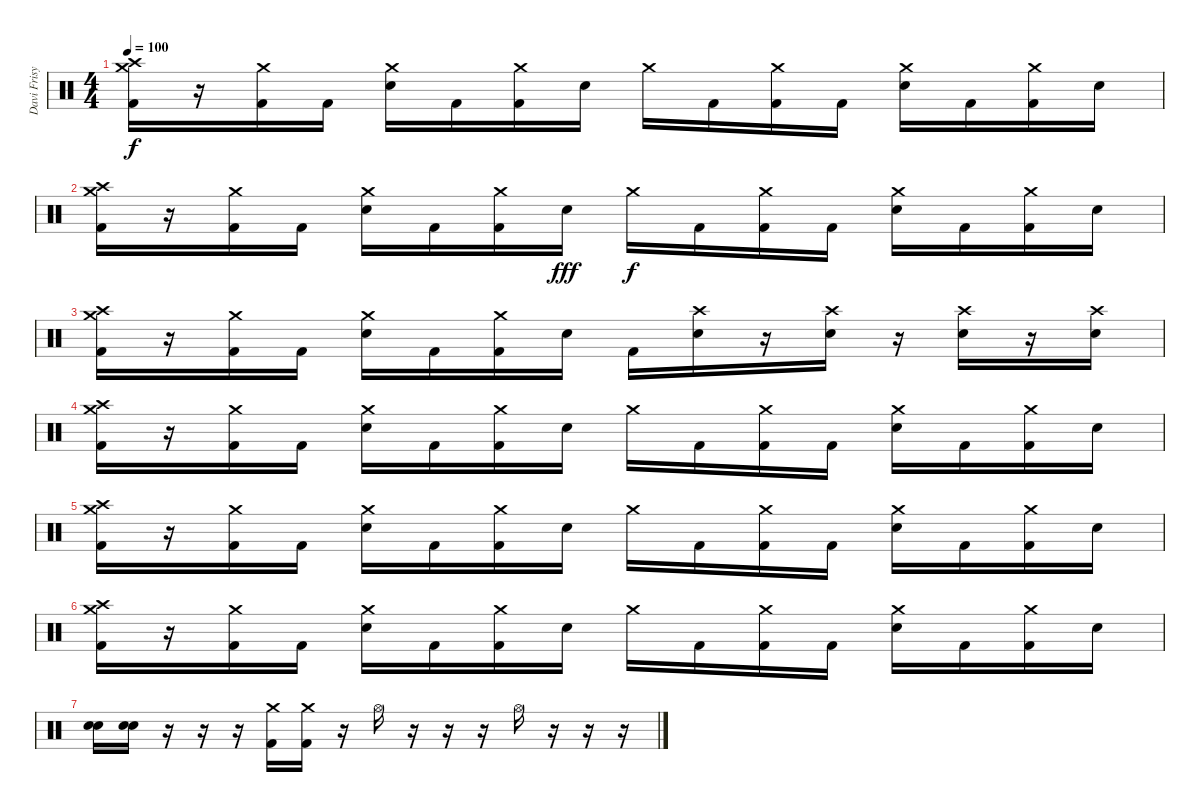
\track ("Davi Frisya" "Davi Frisy") {instrument percussion}
\staff {score}
\articulation defaults
\ts (4 4)
\tempo 100
\clef neutral
\ks c
("Crash medium (hit)" "Crash high (hit)" "Kick (hit) 2").16{dy f} r.16 ("Crash medium (hit)" "Kick (hit) 2").16 "Kick (hit) 2".16 ("Crash medium (hit)" "Electric Snare (hit)").16 "Kick (hit) 2".16 ("Crash medium (hit)" "Kick (hit) 2").16 "Electric Snare (hit)".16 "Crash medium (hit)".16 "Kick (hit) 2".16 ("Crash medium (hit)" "Kick (hit) 2").16 "Kick (hit) 2".16 ("Crash medium (hit)" "Electric Snare (hit)").16 "Kick (hit) 2".16 ("Crash medium (hit)" "Kick (hit) 2").16 "Electric Snare (hit)".16 |
("Crash medium (hit)" "Crash high (hit)" "Kick (hit) 2").16 r.16 ("Crash medium (hit)" "Kick (hit) 2").16 "Kick (hit) 2".16 ("Crash medium (hit)" "Electric Snare (hit)").16 "Kick (hit) 2".16 ("Crash medium (hit)" "Kick (hit) 2").16 "Electric Snare (hit)".16{dy fff} "Crash medium (hit)".16{dy f} "Kick (hit) 2".16 ("Crash medium (hit)" "Kick (hit) 2").16 "Kick (hit) 2".16 ("Crash medium (hit)" "Electric Snare (hit)").16 "Kick (hit) 2".16 ("Crash medium (hit)" "Kick (hit) 2").16 "Electric Snare (hit)".16 |
("Crash medium (hit)" "Crash high (hit)" "Kick (hit) 2").16 r.16 ("Crash medium (hit)" "Kick (hit) 2").16 "Kick (hit) 2".16 ("Crash medium (hit)" "Electric Snare (hit)").16 "Kick (hit) 2".16 ("Crash medium (hit)" "Kick (hit) 2").16 "Electric Snare (hit)".16 "Kick (hit) 2".16 ("Crash high (hit)" "Electric Snare (hit)").16 r.16 ("Crash high (hit)" "Electric Snare (hit)").16 r.16 ("Crash high (hit)" "Electric Snare (hit)").16 r.16 ("Crash high (hit)" "Electric Snare (hit)").16 |
("Crash medium (hit)" "Crash high (hit)" "Kick (hit) 2").16 r.16 ("Crash medium (hit)" "Kick (hit) 2").16 "Kick (hit) 2".16 ("Crash medium (hit)" "Electric Snare (hit)").16 "Kick (hit) 2".16 ("Crash medium (hit)" "Kick (hit) 2").16 "Electric Snare (hit)".16 "Crash medium (hit)".16 "Kick (hit) 2".16 ("Crash medium (hit)" "Kick (hit) 2").16 "Kick (hit) 2".16 ("Crash medium (hit)" "Electric Snare (hit)").16 "Kick (hit) 2".16 ("Crash medium (hit)" "Kick (hit) 2").16 "Electric Snare (hit)".16 |
("Crash medium (hit)" "Crash high (hit)" "Kick (hit) 2").16 r.16 ("Crash medium (hit)" "Kick (hit) 2").16 "Kick (hit) 2".16 ("Crash medium (hit)" "Electric Snare (hit)").16 "Kick (hit) 2".16 ("Crash medium (hit)" "Kick (hit) 2").16 "Electric Snare (hit)".16 "Crash medium (hit)".16 "Kick (hit) 2".16 ("Crash medium (hit)" "Kick (hit) 2").16 "Kick (hit) 2".16 ("Crash medium (hit)" "Electric Snare (hit)").16 "Kick (hit) 2".16 ("Crash medium (hit)" "Kick (hit) 2").16 "Electric Snare (hit)".16 |
("Crash medium (hit)" "Crash high (hit)" "Kick (hit) 2").16 r.16 ("Crash medium (hit)" "Kick (hit) 2").16 "Kick (hit) 2".16 ("Crash medium (hit)" "Electric Snare (hit)").16 "Kick (hit) 2".16 ("Crash medium (hit)" "Kick (hit) 2").16 "Electric Snare (hit)".16 "Crash medium (hit)".16 "Kick (hit) 2".16 ("Crash medium (hit)" "Kick (hit) 2").16 "Kick (hit) 2".16 ("Crash medium (hit)" "Electric Snare (hit)").16 "Kick (hit) 2".16 ("Crash medium (hit)" "Kick (hit) 2").16 "Electric Snare (hit)".16 |
("Electric Snare (hit)" "Electric Snare (hit)").16 ("Electric Snare (hit)" "Electric Snare (hit)").16 r.16 r.16 r.16 ("Crash medium (hit)" "Kick (hit) 2").16 ("Crash medium (hit)" "Kick (hit) 2").16 r.16 "Hi-Hat (open)".16 r.16 r.16 r.16 "Hi-Hat (open)".16 r.16 r.16 r.16
